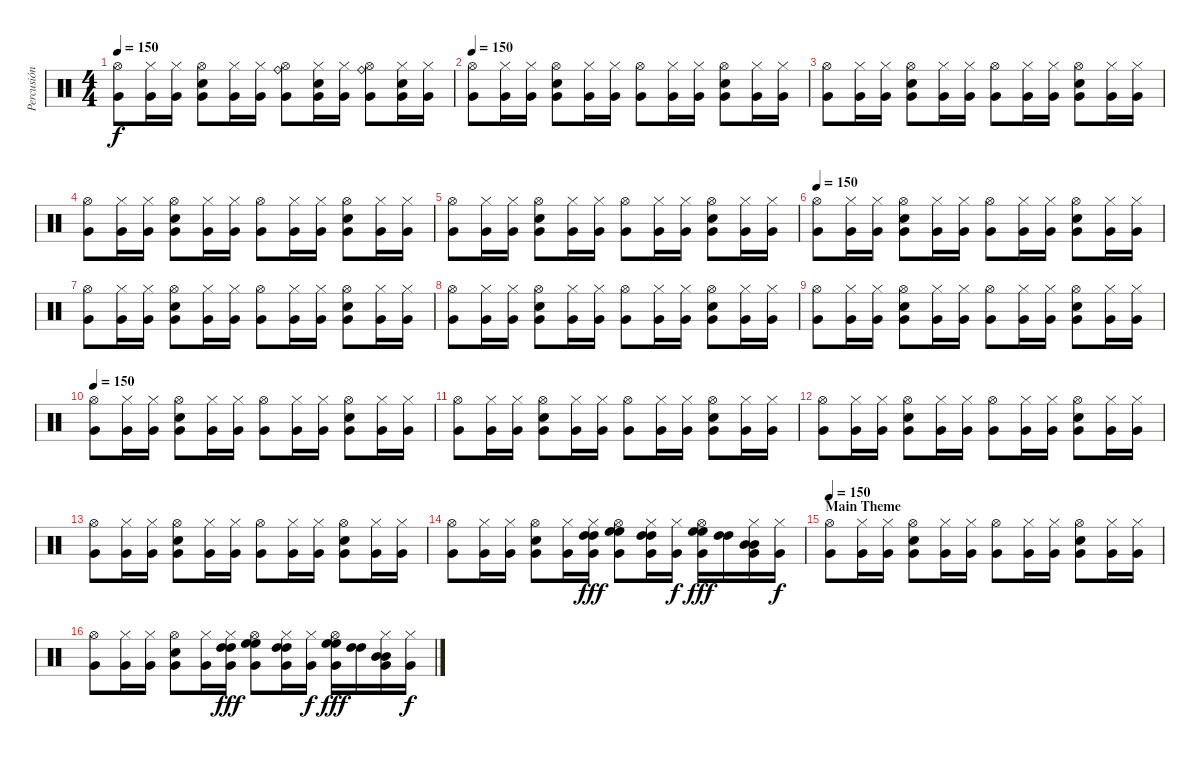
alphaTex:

\track ("Percusión" "Percusión") {instrument percussion}
\staff {score}
\articulation defaults
\ts (4 4)
\tempo 150
\clef neutral
\ks c
("Hi-Hat (open)" "Very Low Tom (hit)").8{dy f} ("Hi-Hat (closed)" "Very Low Tom (hit)").16 ("Hi-Hat (closed)" "Very Low Tom (hit)").16 ("Hi-Hat (open)" "Electric Snare (hit)" "Very Low Tom (hit)").8 ("Hi-Hat (closed)" "Very Low Tom (hit)").16 ("Hi-Hat (closed)" "Very Low Tom (hit)").16 ("Ride (bell)" "Hi-Hat (open)" "Very Low Tom (hit)").8 ("Hi-Hat (closed)" "Electric Snare (hit)" "Very Low Tom (hit)").16 ("Hi-Hat (closed)" "Very Low Tom (hit)").16 ("Ride (bell)" "Hi-Hat (open)" "Very Low Tom (hit)").8 ("Hi-Hat (closed)" "Electric Snare (hit)" "Very Low Tom (hit)").16 ("Hi-Hat (closed)" "Very Low Tom (hit)").16 |
\tempo 150
("Hi-Hat (open)" "Very Low Tom (hit)").8 ("Hi-Hat (closed)" "Very Low Tom (hit)").16 ("Hi-Hat (closed)" "Very Low Tom (hit)").16 ("Hi-Hat (open)" "Electric Snare (hit)" "Very Low Tom (hit)").8 ("Hi-Hat (closed)" "Very Low Tom (hit)").16 ("Hi-Hat (closed)" "Very Low Tom (hit)").16 ("Hi-Hat (open)" "Very Low Tom (hit)").8 ("Hi-Hat (closed)" "Very Low Tom (hit)").16 ("Hi-Hat (closed)" "Very Low Tom (hit)").16 ("Hi-Hat (open)" "Electric Snare (hit)" "Very Low Tom (hit)").8 ("Hi-Hat (closed)" "Very Low Tom (hit)").16 ("Hi-Hat (closed)" "Very Low Tom (hit)").16 |
("Hi-Hat (open)" "Very Low Tom (hit)").8 ("Hi-Hat (closed)" "Very Low Tom (hit)").16 ("Hi-Hat (closed)" "Very Low Tom (hit)").16 ("Hi-Hat (open)" "Electric Snare (hit)" "Very Low Tom (hit)").8 ("Hi-Hat (closed)" "Very Low Tom (hit)").16 ("Hi-Hat (closed)" "Very Low Tom (hit)").16 ("Hi-Hat (open)" "Very Low Tom (hit)").8 ("Hi-Hat (closed)" "Very Low Tom (hit)").16 ("Hi-Hat (closed)" "Very Low Tom (hit)").16 ("Hi-Hat (open)" "Electric Snare (hit)" "Very Low Tom (hit)").8 ("Hi-Hat (closed)" "Very Low Tom (hit)").16 ("Hi-Hat (closed)" "Very Low Tom (hit)").16 |
("Hi-Hat (open)" "Very Low Tom (hit)").8 ("Hi-Hat (closed)" "Very Low Tom (hit)").16 ("Hi-Hat (closed)" "Very Low Tom (hit)").16 ("Hi-Hat (open)" "Electric Snare (hit)" "Very Low Tom (hit)").8 ("Hi-Hat (closed)" "Very Low Tom (hit)").16 ("Hi-Hat (closed)" "Very Low Tom (hit)").16 ("Hi-Hat (open)" "Very Low Tom (hit)").8 ("Hi-Hat (closed)" "Very Low Tom (hit)").16 ("Hi-Hat (closed)" "Very Low Tom (hit)").16 ("Hi-Hat (open)" "Electric Snare (hit)" "Very Low Tom (hit)").8 ("Hi-Hat (closed)" "Very Low Tom (hit)").16 ("Hi-Hat (closed)" "Very Low Tom (hit)").16 |
("Hi-Hat (open)" "Very Low Tom (hit)").8 ("Hi-Hat (closed)" "Very Low Tom (hit)").16 ("Hi-Hat (closed)" "Very Low Tom (hit)").16 ("Hi-Hat (open)" "Electric Snare (hit)" "Very Low Tom (hit)").8 ("Hi-Hat (closed)" "Very Low Tom (hit)").16 ("Hi-Hat (closed)" "Very Low Tom (hit)").16 ("Hi-Hat (open)" "Very Low Tom (hit)").8 ("Hi-Hat (closed)" "Very Low Tom (hit)").16 ("Hi-Hat (closed)" "Very Low Tom (hit)").16 ("Hi-Hat (open)" "Electric Snare (hit)" "Very Low Tom (hit)").8 ("Hi-Hat (closed)" "Very Low Tom (hit)").16 ("Hi-Hat (closed)" "Very Low Tom (hit)").16 |
\tempo 150
("Hi-Hat (open)" "Very Low Tom (hit)").8 ("Hi-Hat (closed)" "Very Low Tom (hit)").16 ("Hi-Hat (closed)" "Very Low Tom (hit)").16 ("Hi-Hat (open)" "Electric Snare (hit)" "Very Low Tom (hit)").8 ("Hi-Hat (closed)" "Very Low Tom (hit)").16 ("Hi-Hat (closed)" "Very Low Tom (hit)").16 ("Hi-Hat (open)" "Very Low Tom (hit)").8 ("Hi-Hat (closed)" "Very Low Tom (hit)").16 ("Hi-Hat (closed)" "Very Low Tom (hit)").16 ("Hi-Hat (open)" "Electric Snare (hit)" "Very Low Tom (hit)").8 ("Hi-Hat (closed)" "Very Low Tom (hit)").16 ("Hi-Hat (closed)" "Very Low Tom (hit)").16 |
("Hi-Hat (open)" "Very Low Tom (hit)").8 ("Hi-Hat (closed)" "Very Low Tom (hit)").16 ("Hi-Hat (closed)" "Very Low Tom (hit)").16 ("Hi-Hat (open)" "Electric Snare (hit)" "Very Low Tom (hit)").8 ("Hi-Hat (closed)" "Very Low Tom (hit)").16 ("Hi-Hat (closed)" "Very Low Tom (hit)").16 ("Hi-Hat (open)" "Very Low Tom (hit)").8 ("Hi-Hat (closed)" "Very Low Tom (hit)").16 ("Hi-Hat (closed)" "Very Low Tom (hit)").16 ("Hi-Hat (open)" "Electric Snare (hit)" "Very Low Tom (hit)").8 ("Hi-Hat (closed)" "Very Low Tom (hit)").16 ("Hi-Hat (closed)" "Very Low Tom (hit)").16 |
("Hi-Hat (open)" "Very Low Tom (hit)").8 ("Hi-Hat (closed)" "Very Low Tom (hit)").16 ("Hi-Hat (closed)" "Very Low Tom (hit)").16 ("Hi-Hat (open)" "Electric Snare (hit)" "Very Low Tom (hit)").8 ("Hi-Hat (closed)" "Very Low Tom (hit)").16 ("Hi-Hat (closed)" "Very Low Tom (hit)").16 ("Hi-Hat (open)" "Very Low Tom (hit)").8 ("Hi-Hat (closed)" "Very Low Tom (hit)").16 ("Hi-Hat (closed)" "Very Low Tom (hit)").16 ("Hi-Hat (open)" "Electric Snare (hit)" "Very Low Tom (hit)").8 ("Hi-Hat (closed)" "Very Low Tom (hit)").16 ("Hi-Hat (closed)" "Very Low Tom (hit)").16 |
("Hi-Hat (open)" "Very Low Tom (hit)").8 ("Hi-Hat (closed)" "Very Low Tom (hit)").16 ("Hi-Hat (closed)" "Very Low Tom (hit)").16 ("Hi-Hat (open)" "Electric Snare (hit)" "Very Low Tom (hit)").8 ("Hi-Hat (closed)" "Very Low Tom (hit)").16 ("Hi-Hat (closed)" "Very Low Tom (hit)").16 ("Hi-Hat (open)" "Very Low Tom (hit)").8 ("Hi-Hat (closed)" "Very Low Tom (hit)").16 ("Hi-Hat (closed)" "Very Low Tom (hit)").16 ("Hi-Hat (open)" "Electric Snare (hit)" "Very Low Tom (hit)").8 ("Hi-Hat (closed)" "Very Low Tom (hit)").16 ("Hi-Hat (closed)" "Very Low Tom (hit)").16 |
\tempo 150
("Hi-Hat (open)" "Very Low Tom (hit)").8 ("Hi-Hat (closed)" "Very Low Tom (hit)").16 ("Hi-Hat (closed)" "Very Low Tom (hit)").16 ("Hi-Hat (open)" "Electric Snare (hit)" "Very Low Tom (hit)").8 ("Hi-Hat (closed)" "Very Low Tom (hit)").16 ("Hi-Hat (closed)" "Very Low Tom (hit)").16 ("Hi-Hat (open)" "Very Low Tom (hit)").8 ("Hi-Hat (closed)" "Very Low Tom (hit)").16 ("Hi-Hat (closed)" "Very Low Tom (hit)").16 ("Hi-Hat (open)" "Electric Snare (hit)" "Very Low Tom (hit)").8 ("Hi-Hat (closed)" "Very Low Tom (hit)").16 ("Hi-Hat (closed)" "Very Low Tom (hit)").16 |
("Hi-Hat (open)" "Very Low Tom (hit)").8 ("Hi-Hat (closed)" "Very Low Tom (hit)").16 ("Hi-Hat (closed)" "Very Low Tom (hit)").16 ("Hi-Hat (open)" "Electric Snare (hit)" "Very Low Tom (hit)").8 ("Hi-Hat (closed)" "Very Low Tom (hit)").16 ("Hi-Hat (closed)" "Very Low Tom (hit)").16 ("Hi-Hat (open)" "Very Low Tom (hit)").8 ("Hi-Hat (closed)" "Very Low Tom (hit)").16 ("Hi-Hat (closed)" "Very Low Tom (hit)").16 ("Hi-Hat (open)" "Electric Snare (hit)" "Very Low Tom (hit)").8 ("Hi-Hat (closed)" "Very Low Tom (hit)").16 ("Hi-Hat (closed)" "Very Low Tom (hit)").16 |
("Hi-Hat (open)" "Very Low Tom (hit)").8 ("Hi-Hat (closed)" "Very Low Tom (hit)").16 ("Hi-Hat (closed)" "Very Low Tom (hit)").16 ("Hi-Hat (open)" "Electric Snare (hit)" "Very Low Tom (hit)").8 ("Hi-Hat (closed)" "Very Low Tom (hit)").16 ("Hi-Hat (closed)" "Very Low Tom (hit)").16 ("Hi-Hat (open)" "Very Low Tom (hit)").8 ("Hi-Hat (closed)" "Very Low Tom (hit)").16 ("Hi-Hat (closed)" "Very Low Tom (hit)").16 ("Hi-Hat (open)" "Electric Snare (hit)" "Very Low Tom (hit)").8 ("Hi-Hat (closed)" "Very Low Tom (hit)").16 ("Hi-Hat (closed)" "Very Low Tom (hit)").16 |
("Hi-Hat (open)" "Very Low Tom (hit)").8 ("Hi-Hat (closed)" "Very Low Tom (hit)").16 ("Hi-Hat (closed)" "Very Low Tom (hit)").16 ("Hi-Hat (open)" "Electric Snare (hit)" "Very Low Tom (hit)").8 ("Hi-Hat (closed)" "Very Low Tom (hit)").16 ("Hi-Hat (closed)" "Very Low Tom (hit)").16 ("Hi-Hat (open)" "Very Low Tom (hit)").8 ("Hi-Hat (closed)" "Very Low Tom (hit)").16 ("Hi-Hat (closed)" "Very Low Tom (hit)").16 ("Hi-Hat (open)" "Electric Snare (hit)" "Very Low Tom (hit)").8 ("Hi-Hat (closed)" "Very Low Tom (hit)").16 ("Hi-Hat (closed)" "Very Low Tom (hit)").16 |
("Hi-Hat (open)" "Very Low Tom (hit)").8 ("Hi-Hat (closed)" "Very Low Tom (hit)").16 ("Hi-Hat (closed)" "Very Low Tom (hit)").16 ("Hi-Hat (open)" "Electric Snare (hit)" "Very Low Tom (hit)").8 ("Hi-Hat (closed)" "Very Low Tom (hit)").16 ("Hi-Hat (closed)" "High Tom (hit)" "High Tom (hit)" "Very Low Tom (hit)").16{dy fff} ("Hi-Hat (open)" "High Floor Tom (hit)" "High Floor Tom (hit)" "Very Low Tom (hit)").8 ("Hi-Hat (closed)" "High Tom (hit)" "High Tom (hit)" "Very Low Tom (hit)").16 ("Hi-Hat (closed)" "Very Low Tom (hit)").16{dy f} ("Hi-Hat (open)" "High Floor Tom (hit)" "High Floor Tom (hit)" "Very Low Tom (hit)").16{dy fff} ("High Tom (hit)" "High Tom (hit)").16 ("Hi-Hat (closed)" "Mid Tom (hit)" "Mid Tom (hit)" "Very Low Tom (hit)").16 ("Hi-Hat (closed)" "Very Low Tom (hit)").16{dy f} |
\section ("" "Main Theme")
\tempo 150
("Hi-Hat (open)" "Very Low Tom (hit)").8 ("Hi-Hat (closed)" "Very Low Tom (hit)").16 ("Hi-Hat (closed)" "Very Low Tom (hit)").16 ("Hi-Hat (open)" "Electric Snare (hit)" "Very Low Tom (hit)").8 ("Hi-Hat (closed)" "Very Low Tom (hit)").16 ("Hi-Hat (closed)" "Very Low Tom (hit)").16 ("Hi-Hat (open)" "Very Low Tom (hit)").8 ("Hi-Hat (closed)" "Very Low Tom (hit)").16 ("Hi-Hat (closed)" "Very Low Tom (hit)").16 ("Hi-Hat (open)" "Electric Snare (hit)" "Very Low Tom (hit)").8 ("Hi-Hat (closed)" "Very Low Tom (hit)").16 ("Hi-Hat (closed)" "Very Low Tom (hit)").16 |
("Hi-Hat (open)" "Very Low Tom (hit)").8 ("Hi-Hat (closed)" "Very Low Tom (hit)").16 ("Hi-Hat (closed)" "Very Low Tom (hit)").16 ("Hi-Hat (open)" "Electric Snare (hit)" "Very Low Tom (hit)").8 ("Hi-Hat (closed)" "Very Low Tom (hit)").16 ("Hi-Hat (closed)" "High Tom (hit)" "High Tom (hit)" "Very Low Tom (hit)").16{dy fff} ("Hi-Hat (open)" "High Floor Tom (hit)" "High Floor Tom (hit)" "Very Low Tom (hit)").8 ("Hi-Hat (closed)" "High Tom (hit)" "High Tom (hit)" "Very Low Tom (hit)").16 ("Hi-Hat (closed)" "Very Low Tom (hit)").16{dy f} ("Hi-Hat (open)" "High Floor Tom (hit)" "High Floor Tom (hit)" "Very Low Tom (hit)").16{dy fff} ("High Tom (hit)" "High Tom (hit)").16 ("Hi-Hat (closed)" "Mid Tom (hit)" "Mid Tom (hit)" "Very Low Tom (hit)").16 ("Hi-Hat (closed)" "Very Low Tom (hit)").16{dy f}
